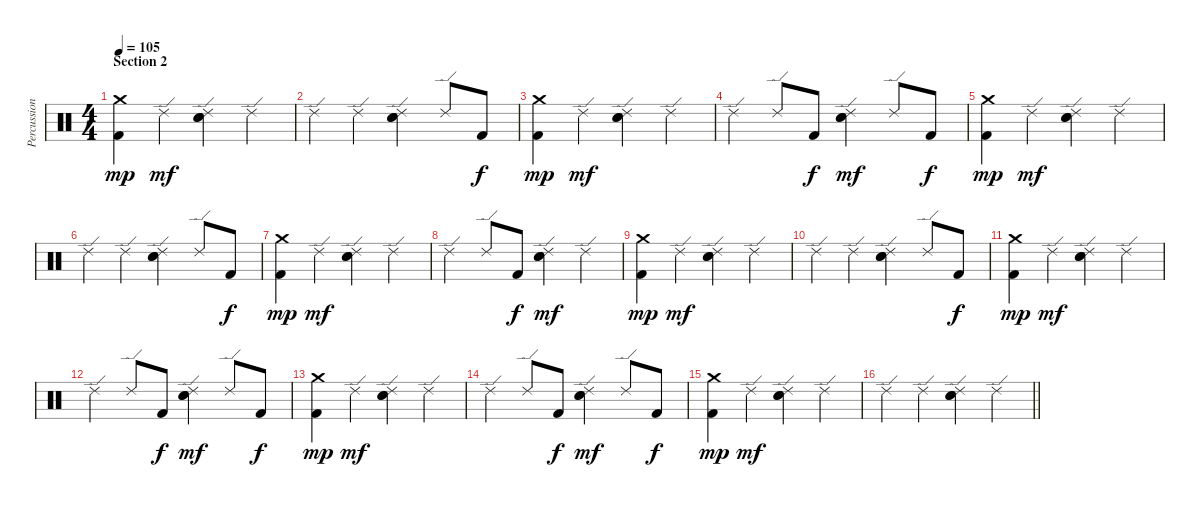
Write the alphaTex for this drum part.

\track ("Percussion" "Percussion") {instrument percussion}
\staff {score}
\articulation defaults
\ts (4 4)
\section ("" "Section 2")
\tempo 105
\clef neutral
\ks c
("Crash medium (hit)" "Kick (hit) 2").4{dy mp} "Ride (edge) 2".4{dy mf} ("Ride (edge) 2" "Electric Snare (hit)" "Snare (hit) 2").4 "Ride (edge) 2".4 |
"Ride (edge) 2".4 "Ride (edge) 2".4 ("Ride (edge) 2" "Electric Snare (hit)" "Snare (hit) 2").4 "Ride (edge) 2".8 "Kick (hit) 2".8{dy f} |
("Crash medium (hit)" "Kick (hit) 2").4{dy mp} "Ride (edge) 2".4{dy mf} ("Ride (edge) 2" "Electric Snare (hit)" "Snare (hit) 2").4 "Ride (edge) 2".4 |
"Ride (edge) 2".4 "Ride (edge) 2".8 "Kick (hit) 2".8{dy f} ("Ride (edge) 2" "Electric Snare (hit)" "Snare (hit) 2").4{dy mf} "Ride (edge) 2".8 "Kick (hit) 2".8{dy f} |
("Crash medium (hit)" "Kick (hit) 2").4{dy mp} "Ride (edge) 2".4{dy mf} ("Ride (edge) 2" "Electric Snare (hit)" "Snare (hit) 2").4 "Ride (edge) 2".4 |
"Ride (edge) 2".4 "Ride (edge) 2".4 ("Ride (edge) 2" "Electric Snare (hit)" "Snare (hit) 2").4 "Ride (edge) 2".8 "Kick (hit) 2".8{dy f} |
("Crash medium (hit)" "Kick (hit) 2").4{dy mp} "Ride (edge) 2".4{dy mf} ("Ride (edge) 2" "Electric Snare (hit)" "Snare (hit) 2").4 "Ride (edge) 2".4 |
"Ride (edge) 2".4 "Ride (edge) 2".8 "Kick (hit) 2".8{dy f} ("Ride (edge) 2" "Electric Snare (hit)" "Snare (hit) 2").4{dy mf} "Ride (edge) 2".4 |
("Crash medium (hit)" "Kick (hit) 2").4{dy mp} "Ride (edge) 2".4{dy mf} ("Ride (edge) 2" "Electric Snare (hit)" "Snare (hit) 2").4 "Ride (edge) 2".4 |
"Ride (edge) 2".4 "Ride (edge) 2".4 ("Ride (edge) 2" "Electric Snare (hit)" "Snare (hit) 2").4 "Ride (edge) 2".8 "Kick (hit) 2".8{dy f} |
("Crash medium (hit)" "Kick (hit) 2").4{dy mp} "Ride (edge) 2".4{dy mf} ("Ride (edge) 2" "Electric Snare (hit)" "Snare (hit) 2").4 "Ride (edge) 2".4 |
"Ride (edge) 2".4 "Ride (edge) 2".8 "Kick (hit) 2".8{dy f} ("Ride (edge) 2" "Electric Snare (hit)" "Snare (hit) 2").4{dy mf} "Ride (edge) 2".8 "Kick (hit) 2".8{dy f} |
("Crash medium (hit)" "Kick (hit) 2").4{dy mp} "Ride (edge) 2".4{dy mf} ("Ride (edge) 2" "Electric Snare (hit)" "Snare (hit) 2").4 "Ride (edge) 2".4 |
"Ride (edge) 2".4 "Ride (edge) 2".8 "Kick (hit) 2".8{dy f} ("Ride (edge) 2" "Electric Snare (hit)" "Snare (hit) 2").4{dy mf} "Ride (edge) 2".8 "Kick (hit) 2".8{dy f} |
("Crash medium (hit)" "Kick (hit) 2").4{dy mp} "Ride (edge) 2".4{dy mf} ("Ride (edge) 2" "Electric Snare (hit)" "Snare (hit) 2").4 "Ride (edge) 2".4 |
\barLineRight lightlight "Ride (edge) 2".4 "Ride (edge) 2".4
("Ride (edge) 2" "Electric Snare (hit)" "Snare (hit) 2").4 "Ride (edge) 2".4
